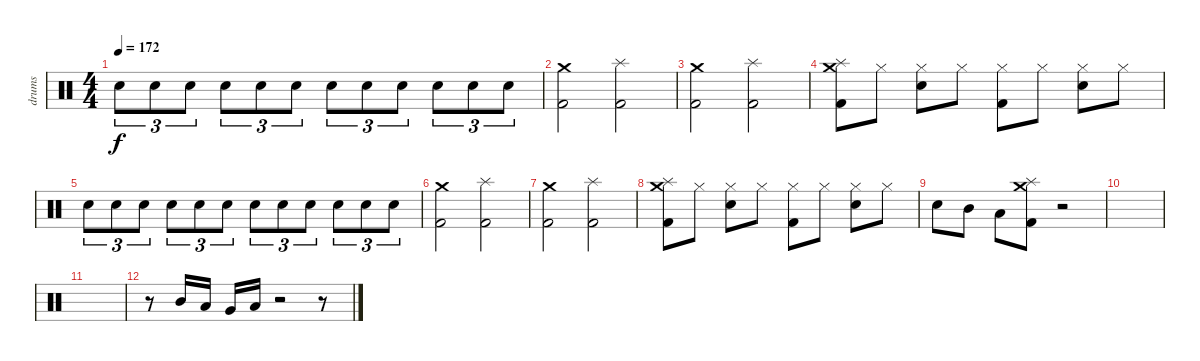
\track ("drums" "drums") {instrument percussion}
\staff {score}
\articulation defaults
\ts (4 4)
\tempo 172
\clef neutral
\ks c "Snare (hit) 2".8{tu (3 2) dy f} "Snare (hit) 2".8{tu (3 2)} "Snare (hit) 2".8{tu (3 2)} "Snare (hit) 2".8{tu (3 2)} "Snare (hit) 2".8{tu (3 2)} "Snare (hit) 2".8{tu (3 2)} "Snare (hit) 2".8{tu (3 2)} "Snare (hit) 2".8{tu (3 2)} "Snare (hit) 2".8{tu (3 2)} "Snare (hit) 2".8{tu (3 2)} "Snare (hit) 2".8{tu (3 2)} "Snare (hit) 2".8{tu (3 2)}
|
("Crash medium (hit)" "Kick (hit) 2").2 ("Splash (hit)" "Kick (hit) 2").2 |
("Crash medium (hit)" "Kick (hit) 2").2 ("Splash (hit)" "Kick (hit) 2").2 |
("Crash medium (hit)" "Splash (hit)" "Kick (hit) 2").8 "Hi-Hat (closed)".8 ("Hi-Hat (closed)" "Snare (hit) 2").8 "Hi-Hat (closed)".8 ("Hi-Hat (closed)" "Kick (hit) 2").8 "Hi-Hat (closed)".8 ("Hi-Hat (closed)" "Snare (hit) 2").8 "Hi-Hat (closed)".8 |
"Snare (hit) 2".8{tu (3 2)} "Snare (hit) 2".8{tu (3 2)} "Snare (hit) 2".8{tu (3 2)} "Snare (hit) 2".8{tu (3 2)} "Snare (hit) 2".8{tu (3 2)} "Snare (hit) 2".8{tu (3 2)} "Snare (hit) 2".8{tu (3 2)} "Snare (hit) 2".8{tu (3 2)} "Snare (hit) 2".8{tu (3 2)} "Snare (hit) 2".8{tu (3 2)} "Snare (hit) 2".8{tu (3 2)} "Snare (hit) 2".8{tu (3 2)} |
("Crash medium (hit)" "Kick (hit) 2").2 ("Splash (hit)" "Kick (hit) 2").2 |
("Crash medium (hit)" "Kick (hit) 2").2 ("Splash (hit)" "Kick (hit) 2").2 |
("Crash medium (hit)" "Splash (hit)" "Kick (hit) 2").8 "Hi-Hat (closed)".8 ("Hi-Hat (closed)" "Snare (hit) 2").8 "Hi-Hat (closed)".8 ("Hi-Hat (closed)" "Kick (hit) 2").8 "Hi-Hat (closed)".8 ("Hi-Hat (closed)" "Snare (hit) 2").8 "Hi-Hat (closed)".8 |
"Snare (hit) 2".8 "Mid Tom (hit)".8 "Low Tom (hit)".8 ("Crash medium (hit)" "Splash (hit)" "Kick (hit) 2").8 r.2 |
|
|
r.8 "Mid Tom (hit)".16 "Low Tom (hit)".16 "Very Low Tom (hit)".16 "Low Floor Tom (hit)".16 r.2 r.8
